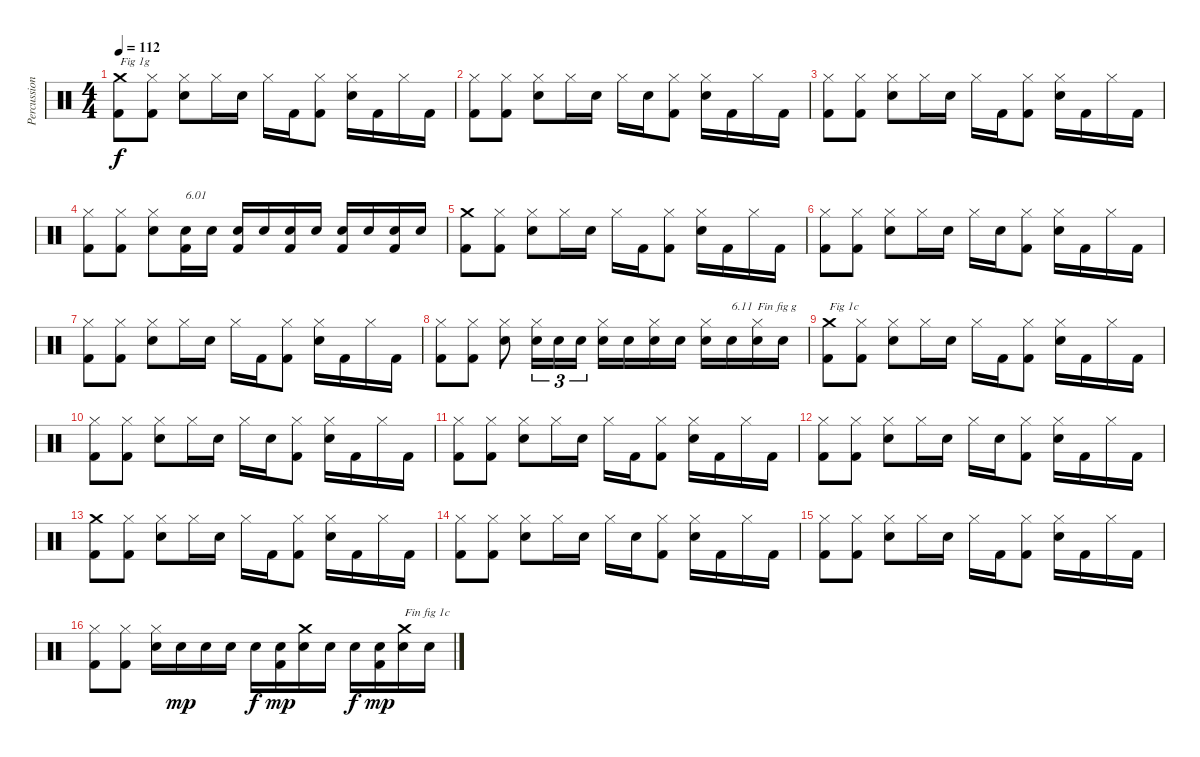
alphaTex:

\track ("Percussions" "Percussion") {instrument percussion}
\staff {score}
\articulation defaults
\ts (4 4)
\tempo 112
\clef neutral
\ks c
("Kick (hit) 2" "Crash medium (hit)").8{txt "Fig 1g" dy f} ("Kick (hit) 2" "Hi-Hat (closed)").8 ("Snare (hit) 2" "Hi-Hat (closed)").8 "Hi-Hat (closed)".16 "Snare (hit) 2".16 "Hi-Hat (closed)".16 "Kick (hit) 2".16 ("Kick (hit) 2" "Hi-Hat (closed)").8 ("Snare (hit) 2" "Hi-Hat (closed)").16 "Kick (hit) 2".16 "Hi-Hat (closed)".16 "Kick (hit) 2".16 |
("Kick (hit) 2" "Hi-Hat (closed)").8 ("Kick (hit) 2" "Hi-Hat (closed)").8 ("Snare (hit) 2" "Hi-Hat (closed)").8 "Hi-Hat (closed)".16 "Snare (hit) 2".16 "Hi-Hat (closed)".16 "Snare (hit) 2".16 ("Kick (hit) 2" "Hi-Hat (closed)").8 ("Snare (hit) 2" "Hi-Hat (closed)").16 "Kick (hit) 2".16 "Hi-Hat (closed)".16 "Kick (hit) 2".16 |
("Kick (hit) 2" "Hi-Hat (closed)").8 ("Kick (hit) 2" "Hi-Hat (closed)").8 ("Snare (hit) 2" "Hi-Hat (closed)").8 "Hi-Hat (closed)".16 "Snare (hit) 2".16 "Hi-Hat (closed)".16 "Kick (hit) 2".16 ("Kick (hit) 2" "Hi-Hat (closed)").8 ("Snare (hit) 2" "Hi-Hat (closed)").16 "Kick (hit) 2".16 "Hi-Hat (closed)".16 "Kick (hit) 2".16 |
("Kick (hit) 2" "Hi-Hat (closed)").8 ("Kick (hit) 2" "Hi-Hat (closed)").8 ("Snare (hit) 2" "Hi-Hat (closed)").8 ("Kick (hit) 2" "Snare (hit) 2").16{txt "6.01"} "Snare (hit) 2".16 ("Kick (hit) 2" "Snare (hit) 2").16 "Snare (hit) 2".16 ("Kick (hit) 2" "Snare (hit) 2").16 "Snare (hit) 2".16 ("Kick (hit) 2" "Snare (hit) 2").16 "Snare (hit) 2".16 ("Kick (hit) 2" "Snare (hit) 2").16 "Snare (hit) 2".16 |
("Kick (hit) 2" "Crash medium (hit)").8 ("Kick (hit) 2" "Hi-Hat (closed)").8 ("Snare (hit) 2" "Hi-Hat (closed)").8 "Hi-Hat (closed)".16 "Snare (hit) 2".16 "Hi-Hat (closed)".16 "Kick (hit) 2".16 ("Kick (hit) 2" "Hi-Hat (closed)").8 ("Snare (hit) 2" "Hi-Hat (closed)").16 "Kick (hit) 2".16 "Hi-Hat (closed)".16 "Kick (hit) 2".16 |
("Kick (hit) 2" "Hi-Hat (closed)").8 ("Kick (hit) 2" "Hi-Hat (closed)").8 ("Snare (hit) 2" "Hi-Hat (closed)").8 "Hi-Hat (closed)".16 "Snare (hit) 2".16 "Hi-Hat (closed)".16 "Snare (hit) 2".16 ("Kick (hit) 2" "Hi-Hat (closed)").8 ("Snare (hit) 2" "Hi-Hat (closed)").16 "Kick (hit) 2".16 "Hi-Hat (closed)".16 "Kick (hit) 2".16 |
("Kick (hit) 2" "Hi-Hat (closed)").8 ("Kick (hit) 2" "Hi-Hat (closed)").8 ("Snare (hit) 2" "Hi-Hat (closed)").8 "Hi-Hat (closed)".16 "Snare (hit) 2".16 "Hi-Hat (closed)".16 "Kick (hit) 2".16 ("Kick (hit) 2" "Hi-Hat (closed)").8 ("Snare (hit) 2" "Hi-Hat (closed)").16 "Kick (hit) 2".16 "Hi-Hat (closed)".16 "Kick (hit) 2".16 |
("Kick (hit) 2" "Hi-Hat (closed)").8 ("Kick (hit) 2" "Hi-Hat (closed)").8 ("Snare (hit) 2" "Hi-Hat (closed)").8 ("Snare (hit) 2" "Hi-Hat (closed)").16{tu (3 2)} "Snare (hit) 2".16{tu (3 2)} "Snare (hit) 2".16{tu (3 2)} ("Snare (hit) 2" "Hi-Hat (closed)").16 "Snare (hit) 2".16 ("Snare (hit) 2" "Hi-Hat (closed)").16 "Snare (hit) 2".16 ("Snare (hit) 2" "Hi-Hat (closed)").16 "Snare (hit) 2".16{txt "6.11"} ("Snare (hit) 2" "Hi-Hat (closed)").16{txt "Fin fig g"} "Snare (hit) 2".16 |
("Kick (hit) 2" "Crash medium (hit)").8{txt "Fig 1c"} ("Kick (hit) 2" "Hi-Hat (closed)").8 ("Snare (hit) 2" "Hi-Hat (closed)").8 "Hi-Hat (closed)".16 "Snare (hit) 2".16 "Hi-Hat (closed)".16 "Kick (hit) 2".16 ("Kick (hit) 2" "Hi-Hat (closed)").8 ("Snare (hit) 2" "Hi-Hat (closed)").16 "Kick (hit) 2".16 "Hi-Hat (closed)".16 "Kick (hit) 2".16 |
("Kick (hit) 2" "Hi-Hat (closed)").8 ("Kick (hit) 2" "Hi-Hat (closed)").8 ("Snare (hit) 2" "Hi-Hat (closed)").8 "Hi-Hat (closed)".16 "Snare (hit) 2".16 "Hi-Hat (closed)".16 "Snare (hit) 2".16 ("Kick (hit) 2" "Hi-Hat (closed)").8 ("Snare (hit) 2" "Hi-Hat (closed)").16 "Kick (hit) 2".16 "Hi-Hat (closed)".16 "Kick (hit) 2".16 |
("Kick (hit) 2" "Hi-Hat (closed)").8 ("Kick (hit) 2" "Hi-Hat (closed)").8 ("Snare (hit) 2" "Hi-Hat (closed)").8 "Hi-Hat (closed)".16 "Snare (hit) 2".16 "Hi-Hat (closed)".16 "Kick (hit) 2".16 ("Kick (hit) 2" "Hi-Hat (closed)").8 ("Snare (hit) 2" "Hi-Hat (closed)").16 "Kick (hit) 2".16 "Hi-Hat (closed)".16 "Kick (hit) 2".16 |
("Kick (hit) 2" "Hi-Hat (closed)").8 ("Kick (hit) 2" "Hi-Hat (closed)").8 ("Snare (hit) 2" "Hi-Hat (closed)").8 "Hi-Hat (closed)".16 "Snare (hit) 2".16 "Hi-Hat (closed)".16 "Snare (hit) 2".16 ("Kick (hit) 2" "Hi-Hat (closed)").8 ("Snare (hit) 2" "Hi-Hat (closed)").16 "Kick (hit) 2".16 "Hi-Hat (closed)".16 "Kick (hit) 2".16 |
("Kick (hit) 2" "Crash medium (hit)").8 ("Kick (hit) 2" "Hi-Hat (closed)").8 ("Snare (hit) 2" "Hi-Hat (closed)").8 "Hi-Hat (closed)".16 "Snare (hit) 2".16 "Hi-Hat (closed)".16 "Kick (hit) 2".16 ("Kick (hit) 2" "Hi-Hat (closed)").8 ("Snare (hit) 2" "Hi-Hat (closed)").16 "Kick (hit) 2".16 "Hi-Hat (closed)".16 "Kick (hit) 2".16 |
("Kick (hit) 2" "Hi-Hat (closed)").8 ("Kick (hit) 2" "Hi-Hat (closed)").8 ("Snare (hit) 2" "Hi-Hat (closed)").8 "Hi-Hat (closed)".16 "Snare (hit) 2".16 "Hi-Hat (closed)".16 "Snare (hit) 2".16 ("Kick (hit) 2" "Hi-Hat (closed)").8 ("Snare (hit) 2" "Hi-Hat (closed)").16 "Kick (hit) 2".16 "Hi-Hat (closed)".16 "Kick (hit) 2".16 |
("Kick (hit) 2" "Hi-Hat (closed)").8 ("Kick (hit) 2" "Hi-Hat (closed)").8 ("Snare (hit) 2" "Hi-Hat (closed)").8 "Hi-Hat (closed)".16 "Snare (hit) 2".16 "Hi-Hat (closed)".16 "Kick (hit) 2".16 ("Kick (hit) 2" "Hi-Hat (closed)").8 ("Snare (hit) 2" "Hi-Hat (closed)").16 "Kick (hit) 2".16 "Hi-Hat (closed)".16 "Kick (hit) 2".16 |
("Kick (hit) 2" "Hi-Hat (closed)").8 ("Kick (hit) 2" "Hi-Hat (closed)").8 ("Snare (hit) 2" "Hi-Hat (closed)").16 "Snare (hit) 2".16{dy mp} "Snare (hit) 2".16 "Snare (hit) 2".16 "Snare (hit) 2".16{dy f} ("Kick (hit) 2" "Snare (hit) 2").16{dy mp} ("Snare (hit) 2" "Crash medium (hit)").16 "Snare (hit) 2".16 "Snare (hit) 2".16{dy f} ("Kick (hit) 2" "Snare (hit) 2").16{dy mp} ("Snare (hit) 2" "Crash medium (hit)").16{txt "Fin fig 1c"} "Snare (hit) 2".16
